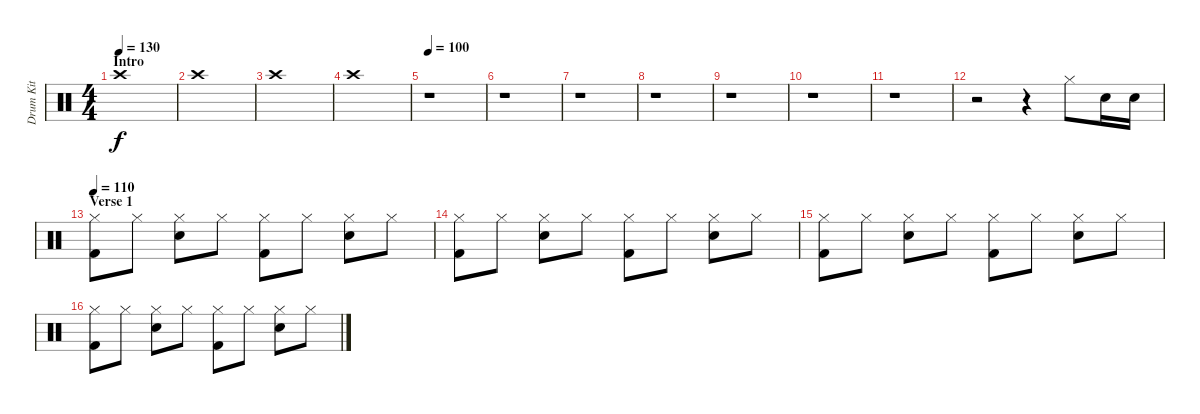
\track ("Drum Kit" "Drum Kit") {instrument percussion}
\staff {score}
\articulation defaults
\ts (4 4)
\section ("" "Intro")
\tempo 130
\tempo 90
\tempo 130
\clef neutral
\ks c "Crash high (hit)".1{dy f}
|
"Crash high (hit)".1 |
"Crash high (hit)".1 |
"Crash high (hit)".1 |
\tempo 100
r.1 |
r.1 |
r.1 |
r.1 |
r.1 |
r.1 |
r.1 |
r.2 r.4 "Hi-Hat (closed)".8 "Snare (hit) 2".16 "Snare (hit) 2".16 |
\section ("" "Verse 1")
\tempo 110
("Hi-Hat (closed)" "Kick (hit) 2").8 "Hi-Hat (closed)".8 ("Hi-Hat (closed)" "Snare (hit) 2").8 "Hi-Hat (closed)".8 ("Hi-Hat (closed)" "Kick (hit) 2").8 "Hi-Hat (closed)".8 ("Hi-Hat (closed)" "Snare (hit) 2").8 "Hi-Hat (closed)".8 |
("Hi-Hat (closed)" "Kick (hit) 2").8 "Hi-Hat (closed)".8 ("Hi-Hat (closed)" "Snare (hit) 2").8 "Hi-Hat (closed)".8 ("Hi-Hat (closed)" "Kick (hit) 2").8 "Hi-Hat (closed)".8 ("Hi-Hat (closed)" "Snare (hit) 2").8 "Hi-Hat (closed)".8 |
("Hi-Hat (closed)" "Kick (hit) 2").8 "Hi-Hat (closed)".8 ("Hi-Hat (closed)" "Snare (hit) 2").8 "Hi-Hat (closed)".8 ("Hi-Hat (closed)" "Kick (hit) 2").8 "Hi-Hat (closed)".8 ("Hi-Hat (closed)" "Snare (hit) 2").8 "Hi-Hat (closed)".8 |
("Hi-Hat (closed)" "Kick (hit) 2").8 "Hi-Hat (closed)".8 ("Hi-Hat (closed)" "Snare (hit) 2").8 "Hi-Hat (closed)".8 ("Hi-Hat (closed)" "Kick (hit) 2").8 "Hi-Hat (closed)".8 ("Hi-Hat (closed)" "Snare (hit) 2").8 "Hi-Hat (closed)".8
